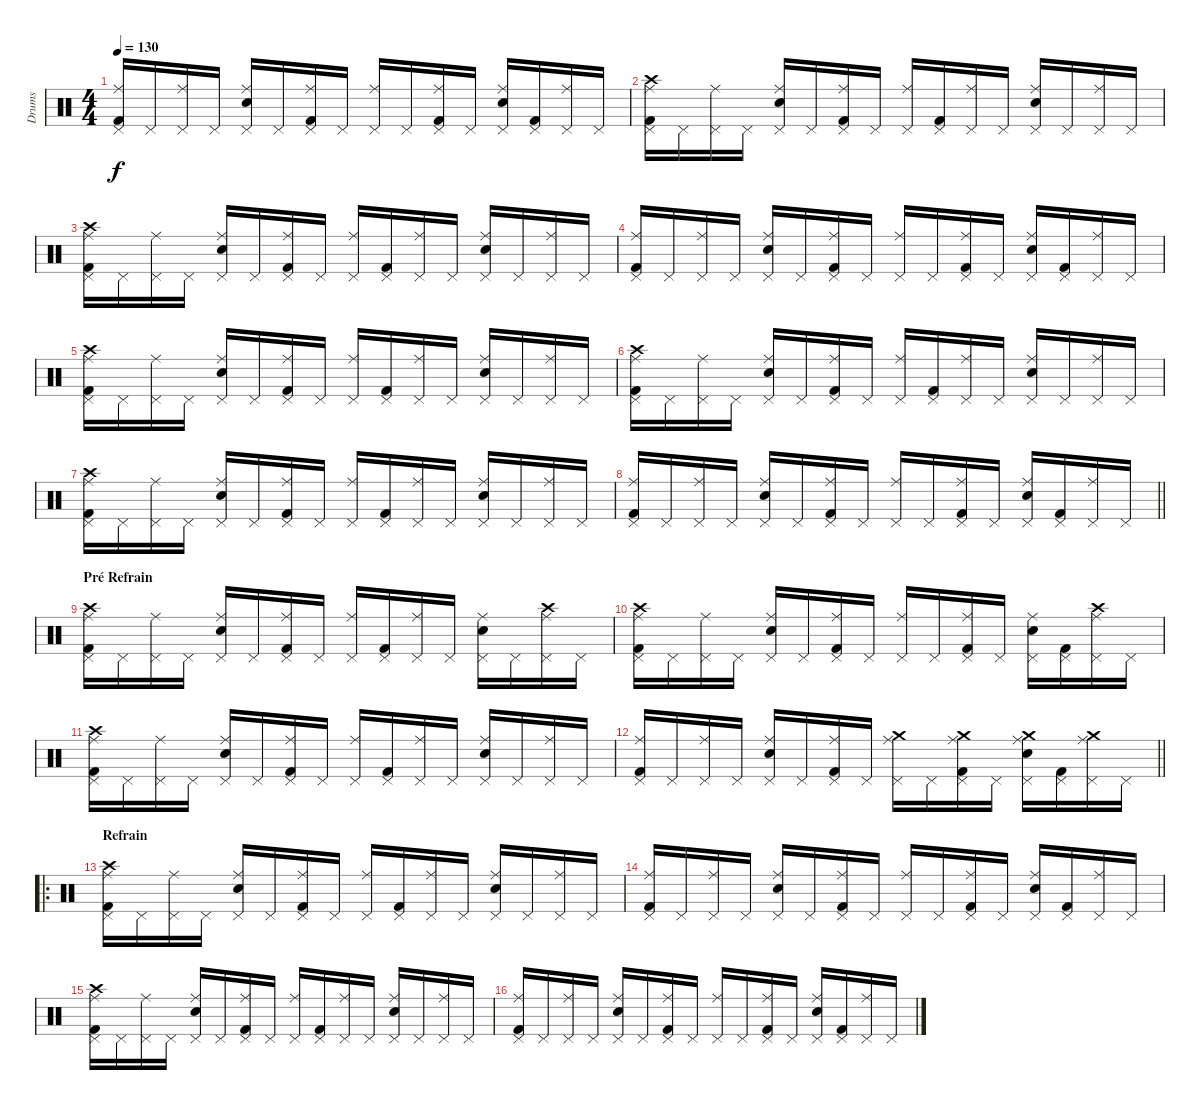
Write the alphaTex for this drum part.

\track ("Drums" "Drums") {instrument percussion}
\staff {score}
\articulation defaults
\ts (4 4)
\tempo 130
\clef neutral
\ks c
("Ride (middle)" "Pedal Hi-Hat (hit)" "Kick (hit) 2").16{dy f} "Pedal Hi-Hat (hit)".16 ("Ride (middle)" "Pedal Hi-Hat (hit)").16 "Pedal Hi-Hat (hit)".16 ("Ride (middle)" "Pedal Hi-Hat (hit)" "Electric Snare (hit)").16 "Pedal Hi-Hat (hit)".16 ("Ride (middle)" "Pedal Hi-Hat (hit)" "Kick (hit) 2").16 "Pedal Hi-Hat (hit)".16 ("Ride (middle)" "Pedal Hi-Hat (hit)").16 "Pedal Hi-Hat (hit)".16 ("Ride (middle)" "Pedal Hi-Hat (hit)" "Kick (hit) 2").16 "Pedal Hi-Hat (hit)".16 ("Ride (middle)" "Pedal Hi-Hat (hit)" "Electric Snare (hit)").16 ("Pedal Hi-Hat (hit)" "Kick (hit) 2").16 ("Ride (middle)" "Pedal Hi-Hat (hit)").16 "Pedal Hi-Hat (hit)".16 |
("Crash high (hit)" "Pedal Hi-Hat (hit)" "Ride (middle)" "Kick (hit) 2").16 "Pedal Hi-Hat (hit)".16 ("Pedal Hi-Hat (hit)" "Ride (middle)").16 "Pedal Hi-Hat (hit)".16 ("Pedal Hi-Hat (hit)" "Ride (middle)" "Electric Snare (hit)").16 "Pedal Hi-Hat (hit)".16 ("Pedal Hi-Hat (hit)" "Ride (middle)" "Kick (hit) 2").16 "Pedal Hi-Hat (hit)".16 ("Pedal Hi-Hat (hit)" "Ride (middle)").16 ("Pedal Hi-Hat (hit)" "Kick (hit) 2").16 ("Pedal Hi-Hat (hit)" "Ride (middle)").16 "Pedal Hi-Hat (hit)".16 ("Pedal Hi-Hat (hit)" "Ride (middle)" "Electric Snare (hit)").16 "Pedal Hi-Hat (hit)".16 ("Pedal Hi-Hat (hit)" "Ride (middle)").16 "Pedal Hi-Hat (hit)".16 |
("Crash high (hit)" "Pedal Hi-Hat (hit)" "Ride (middle)" "Kick (hit) 2").16 "Pedal Hi-Hat (hit)".16 ("Pedal Hi-Hat (hit)" "Ride (middle)").16 "Pedal Hi-Hat (hit)".16 ("Pedal Hi-Hat (hit)" "Ride (middle)" "Electric Snare (hit)").16 "Pedal Hi-Hat (hit)".16 ("Pedal Hi-Hat (hit)" "Ride (middle)" "Kick (hit) 2").16 "Pedal Hi-Hat (hit)".16 ("Pedal Hi-Hat (hit)" "Ride (middle)").16 ("Pedal Hi-Hat (hit)" "Kick (hit) 2").16 ("Pedal Hi-Hat (hit)" "Ride (middle)").16 "Pedal Hi-Hat (hit)".16 ("Pedal Hi-Hat (hit)" "Ride (middle)" "Electric Snare (hit)").16 "Pedal Hi-Hat (hit)".16 ("Pedal Hi-Hat (hit)" "Ride (middle)").16 "Pedal Hi-Hat (hit)".16 |
("Ride (middle)" "Pedal Hi-Hat (hit)" "Kick (hit) 2").16 "Pedal Hi-Hat (hit)".16 ("Ride (middle)" "Pedal Hi-Hat (hit)").16 "Pedal Hi-Hat (hit)".16 ("Ride (middle)" "Pedal Hi-Hat (hit)" "Electric Snare (hit)").16 "Pedal Hi-Hat (hit)".16 ("Ride (middle)" "Pedal Hi-Hat (hit)" "Kick (hit) 2").16 "Pedal Hi-Hat (hit)".16 ("Ride (middle)" "Pedal Hi-Hat (hit)").16 "Pedal Hi-Hat (hit)".16 ("Ride (middle)" "Pedal Hi-Hat (hit)" "Kick (hit) 2").16 "Pedal Hi-Hat (hit)".16 ("Ride (middle)" "Pedal Hi-Hat (hit)" "Electric Snare (hit)").16 ("Pedal Hi-Hat (hit)" "Kick (hit) 2").16 ("Ride (middle)" "Pedal Hi-Hat (hit)").16 "Pedal Hi-Hat (hit)".16 |
("Crash high (hit)" "Pedal Hi-Hat (hit)" "Ride (middle)" "Kick (hit) 2").16 "Pedal Hi-Hat (hit)".16 ("Pedal Hi-Hat (hit)" "Ride (middle)").16 "Pedal Hi-Hat (hit)".16 ("Pedal Hi-Hat (hit)" "Ride (middle)" "Electric Snare (hit)").16 "Pedal Hi-Hat (hit)".16 ("Pedal Hi-Hat (hit)" "Ride (middle)" "Kick (hit) 2").16 "Pedal Hi-Hat (hit)".16 ("Pedal Hi-Hat (hit)" "Ride (middle)").16 ("Pedal Hi-Hat (hit)" "Kick (hit) 2").16 ("Pedal Hi-Hat (hit)" "Ride (middle)").16 "Pedal Hi-Hat (hit)".16 ("Pedal Hi-Hat (hit)" "Ride (middle)" "Electric Snare (hit)").16 "Pedal Hi-Hat (hit)".16 ("Pedal Hi-Hat (hit)" "Ride (middle)").16 "Pedal Hi-Hat (hit)".16 |
("Crash high (hit)" "Pedal Hi-Hat (hit)" "Ride (middle)" "Kick (hit) 2").16 "Pedal Hi-Hat (hit)".16 ("Pedal Hi-Hat (hit)" "Ride (middle)").16 "Pedal Hi-Hat (hit)".16 ("Pedal Hi-Hat (hit)" "Ride (middle)" "Electric Snare (hit)").16 "Pedal Hi-Hat (hit)".16 ("Pedal Hi-Hat (hit)" "Ride (middle)" "Kick (hit) 2").16 "Pedal Hi-Hat (hit)".16 ("Pedal Hi-Hat (hit)" "Ride (middle)").16 ("Pedal Hi-Hat (hit)" "Kick (hit) 2").16 ("Pedal Hi-Hat (hit)" "Ride (middle)").16 "Pedal Hi-Hat (hit)".16 ("Pedal Hi-Hat (hit)" "Ride (middle)" "Electric Snare (hit)").16 "Pedal Hi-Hat (hit)".16 ("Pedal Hi-Hat (hit)" "Ride (middle)").16 "Pedal Hi-Hat (hit)".16 |
("Crash high (hit)" "Pedal Hi-Hat (hit)" "Ride (middle)" "Kick (hit) 2").16 "Pedal Hi-Hat (hit)".16 ("Pedal Hi-Hat (hit)" "Ride (middle)").16 "Pedal Hi-Hat (hit)".16 ("Pedal Hi-Hat (hit)" "Ride (middle)" "Electric Snare (hit)").16 "Pedal Hi-Hat (hit)".16 ("Pedal Hi-Hat (hit)" "Ride (middle)" "Kick (hit) 2").16 "Pedal Hi-Hat (hit)".16 ("Pedal Hi-Hat (hit)" "Ride (middle)").16 ("Pedal Hi-Hat (hit)" "Kick (hit) 2").16 ("Pedal Hi-Hat (hit)" "Ride (middle)").16 "Pedal Hi-Hat (hit)".16 ("Pedal Hi-Hat (hit)" "Ride (middle)" "Electric Snare (hit)").16 "Pedal Hi-Hat (hit)".16 ("Pedal Hi-Hat (hit)" "Ride (middle)").16 "Pedal Hi-Hat (hit)".16 |
\barLineRight lightlight
("Ride (middle)" "Pedal Hi-Hat (hit)" "Kick (hit) 2").16 "Pedal Hi-Hat (hit)".16 ("Ride (middle)" "Pedal Hi-Hat (hit)").16 "Pedal Hi-Hat (hit)".16 ("Ride (middle)" "Pedal Hi-Hat (hit)" "Electric Snare (hit)").16 "Pedal Hi-Hat (hit)".16 ("Ride (middle)" "Pedal Hi-Hat (hit)" "Kick (hit) 2").16 "Pedal Hi-Hat (hit)".16 ("Ride (middle)" "Pedal Hi-Hat (hit)").16 "Pedal Hi-Hat (hit)".16 ("Ride (middle)" "Pedal Hi-Hat (hit)" "Kick (hit) 2").16 "Pedal Hi-Hat (hit)".16 ("Ride (middle)" "Pedal Hi-Hat (hit)" "Electric Snare (hit)").16 ("Pedal Hi-Hat (hit)" "Kick (hit) 2").16 ("Ride (middle)" "Pedal Hi-Hat (hit)").16 "Pedal Hi-Hat (hit)".16 |
\section ("" "Pré Refrain")
("Crash high (hit)" "Pedal Hi-Hat (hit)" "Ride (middle)" "Kick (hit) 2").16 "Pedal Hi-Hat (hit)".16 ("Pedal Hi-Hat (hit)" "Ride (middle)").16 "Pedal Hi-Hat (hit)".16 ("Pedal Hi-Hat (hit)" "Ride (middle)" "Electric Snare (hit)").16 "Pedal Hi-Hat (hit)".16 ("Pedal Hi-Hat (hit)" "Ride (middle)" "Kick (hit) 2").16 "Pedal Hi-Hat (hit)".16 ("Pedal Hi-Hat (hit)" "Ride (middle)").16 ("Pedal Hi-Hat (hit)" "Kick (hit) 2").16 ("Pedal Hi-Hat (hit)" "Ride (middle)").16 "Pedal Hi-Hat (hit)".16 ("Pedal Hi-Hat (hit)" "Ride (middle)" "Electric Snare (hit)").16 "Pedal Hi-Hat (hit)".16 ("Crash high (hit)" "Pedal Hi-Hat (hit)" "Ride (middle)").16 "Pedal Hi-Hat (hit)".16 |
("Crash high (hit)" "Ride (middle)" "Pedal Hi-Hat (hit)" "Kick (hit) 2").16 "Pedal Hi-Hat (hit)".16 ("Ride (middle)" "Pedal Hi-Hat (hit)").16 "Pedal Hi-Hat (hit)".16 ("Ride (middle)" "Pedal Hi-Hat (hit)" "Electric Snare (hit)").16 "Pedal Hi-Hat (hit)".16 ("Ride (middle)" "Pedal Hi-Hat (hit)" "Kick (hit) 2").16 "Pedal Hi-Hat (hit)".16 ("Ride (middle)" "Pedal Hi-Hat (hit)").16 "Pedal Hi-Hat (hit)".16 ("Ride (middle)" "Pedal Hi-Hat (hit)" "Kick (hit) 2").16 "Pedal Hi-Hat (hit)".16 ("Ride (middle)" "Pedal Hi-Hat (hit)" "Electric Snare (hit)").16 ("Pedal Hi-Hat (hit)" "Kick (hit) 2").16 ("Crash high (hit)" "Ride (middle)" "Pedal Hi-Hat (hit)").16 "Pedal Hi-Hat (hit)".16 |
("Crash high (hit)" "Pedal Hi-Hat (hit)" "Ride (middle)" "Kick (hit) 2").16 "Pedal Hi-Hat (hit)".16 ("Pedal Hi-Hat (hit)" "Ride (middle)").16 "Pedal Hi-Hat (hit)".16 ("Pedal Hi-Hat (hit)" "Ride (middle)" "Electric Snare (hit)").16 "Pedal Hi-Hat (hit)".16 ("Pedal Hi-Hat (hit)" "Ride (middle)" "Kick (hit) 2").16 "Pedal Hi-Hat (hit)".16 ("Pedal Hi-Hat (hit)" "Ride (middle)").16 ("Pedal Hi-Hat (hit)" "Kick (hit) 2").16 ("Pedal Hi-Hat (hit)" "Ride (middle)").16 "Pedal Hi-Hat (hit)".16 ("Pedal Hi-Hat (hit)" "Ride (middle)" "Electric Snare (hit)").16 "Pedal Hi-Hat (hit)".16 ("Pedal Hi-Hat (hit)" "Ride (middle)").16 "Pedal Hi-Hat (hit)".16 |
\barLineRight lightlight
("Ride (middle)" "Pedal Hi-Hat (hit)" "Kick (hit) 2").16 "Pedal Hi-Hat (hit)".16 ("Ride (middle)" "Pedal Hi-Hat (hit)").16 "Pedal Hi-Hat (hit)".16 ("Ride (middle)" "Pedal Hi-Hat (hit)" "Electric Snare (hit)").16 "Pedal Hi-Hat (hit)".16 ("Ride (middle)" "Pedal Hi-Hat (hit)" "Kick (hit) 2").16 "Pedal Hi-Hat (hit)".16 ("Crash medium (hit)" "Ride (middle)" "Pedal Hi-Hat (hit)").16 "Pedal Hi-Hat (hit)".16 ("Crash medium (hit)" "Ride (middle)" "Pedal Hi-Hat (hit)" "Kick (hit) 2").16 "Pedal Hi-Hat (hit)".16 ("Crash medium (hit)" "Ride (middle)" "Pedal Hi-Hat (hit)" "Electric Snare (hit)").16 ("Pedal Hi-Hat (hit)" "Kick (hit) 2").16 ("Crash medium (hit)" "Ride (middle)" "Pedal Hi-Hat (hit)").16 "Pedal Hi-Hat (hit)".16 |
\ro
\section ("" "Refrain")
("Crash high (hit)" "Pedal Hi-Hat (hit)" "Ride (middle)" "Kick (hit) 2").16 "Pedal Hi-Hat (hit)".16 ("Pedal Hi-Hat (hit)" "Ride (middle)").16 "Pedal Hi-Hat (hit)".16 ("Pedal Hi-Hat (hit)" "Ride (middle)" "Electric Snare (hit)").16 "Pedal Hi-Hat (hit)".16 ("Pedal Hi-Hat (hit)" "Ride (middle)" "Kick (hit) 2").16 "Pedal Hi-Hat (hit)".16 ("Pedal Hi-Hat (hit)" "Ride (middle)").16 ("Pedal Hi-Hat (hit)" "Kick (hit) 2").16 ("Pedal Hi-Hat (hit)" "Ride (middle)").16 "Pedal Hi-Hat (hit)".16 ("Pedal Hi-Hat (hit)" "Ride (middle)" "Electric Snare (hit)").16 "Pedal Hi-Hat (hit)".16 ("Pedal Hi-Hat (hit)" "Ride (middle)").16 "Pedal Hi-Hat (hit)".16 |
("Ride (middle)" "Pedal Hi-Hat (hit)" "Kick (hit) 2").16 "Pedal Hi-Hat (hit)".16 ("Ride (middle)" "Pedal Hi-Hat (hit)").16 "Pedal Hi-Hat (hit)".16 ("Ride (middle)" "Pedal Hi-Hat (hit)" "Electric Snare (hit)").16 "Pedal Hi-Hat (hit)".16 ("Ride (middle)" "Pedal Hi-Hat (hit)" "Kick (hit) 2").16 "Pedal Hi-Hat (hit)".16 ("Ride (middle)" "Pedal Hi-Hat (hit)").16 "Pedal Hi-Hat (hit)".16 ("Ride (middle)" "Pedal Hi-Hat (hit)" "Kick (hit) 2").16 "Pedal Hi-Hat (hit)".16 ("Ride (middle)" "Pedal Hi-Hat (hit)" "Electric Snare (hit)").16 ("Pedal Hi-Hat (hit)" "Kick (hit) 2").16 ("Ride (middle)" "Pedal Hi-Hat (hit)").16 "Pedal Hi-Hat (hit)".16 |
("Crash high (hit)" "Pedal Hi-Hat (hit)" "Ride (middle)" "Kick (hit) 2").16 "Pedal Hi-Hat (hit)".16 ("Pedal Hi-Hat (hit)" "Ride (middle)").16 "Pedal Hi-Hat (hit)".16 ("Pedal Hi-Hat (hit)" "Ride (middle)" "Electric Snare (hit)").16 "Pedal Hi-Hat (hit)".16 ("Pedal Hi-Hat (hit)" "Ride (middle)" "Kick (hit) 2").16 "Pedal Hi-Hat (hit)".16 ("Pedal Hi-Hat (hit)" "Ride (middle)").16 ("Pedal Hi-Hat (hit)" "Kick (hit) 2").16 ("Pedal Hi-Hat (hit)" "Ride (middle)").16 "Pedal Hi-Hat (hit)".16 ("Pedal Hi-Hat (hit)" "Ride (middle)" "Electric Snare (hit)").16 "Pedal Hi-Hat (hit)".16 ("Pedal Hi-Hat (hit)" "Ride (middle)").16 "Pedal Hi-Hat (hit)".16 |
("Ride (middle)" "Pedal Hi-Hat (hit)" "Kick (hit) 2").16 "Pedal Hi-Hat (hit)".16 ("Ride (middle)" "Pedal Hi-Hat (hit)").16 "Pedal Hi-Hat (hit)".16 ("Ride (middle)" "Pedal Hi-Hat (hit)" "Electric Snare (hit)").16 "Pedal Hi-Hat (hit)".16 ("Ride (middle)" "Pedal Hi-Hat (hit)" "Kick (hit) 2").16 "Pedal Hi-Hat (hit)".16 ("Ride (middle)" "Pedal Hi-Hat (hit)").16 "Pedal Hi-Hat (hit)".16 ("Ride (middle)" "Pedal Hi-Hat (hit)" "Kick (hit) 2").16 "Pedal Hi-Hat (hit)".16 ("Ride (middle)" "Pedal Hi-Hat (hit)" "Electric Snare (hit)").16 ("Pedal Hi-Hat (hit)" "Kick (hit) 2").16 ("Ride (middle)" "Pedal Hi-Hat (hit)").16 "Pedal Hi-Hat (hit)".16
